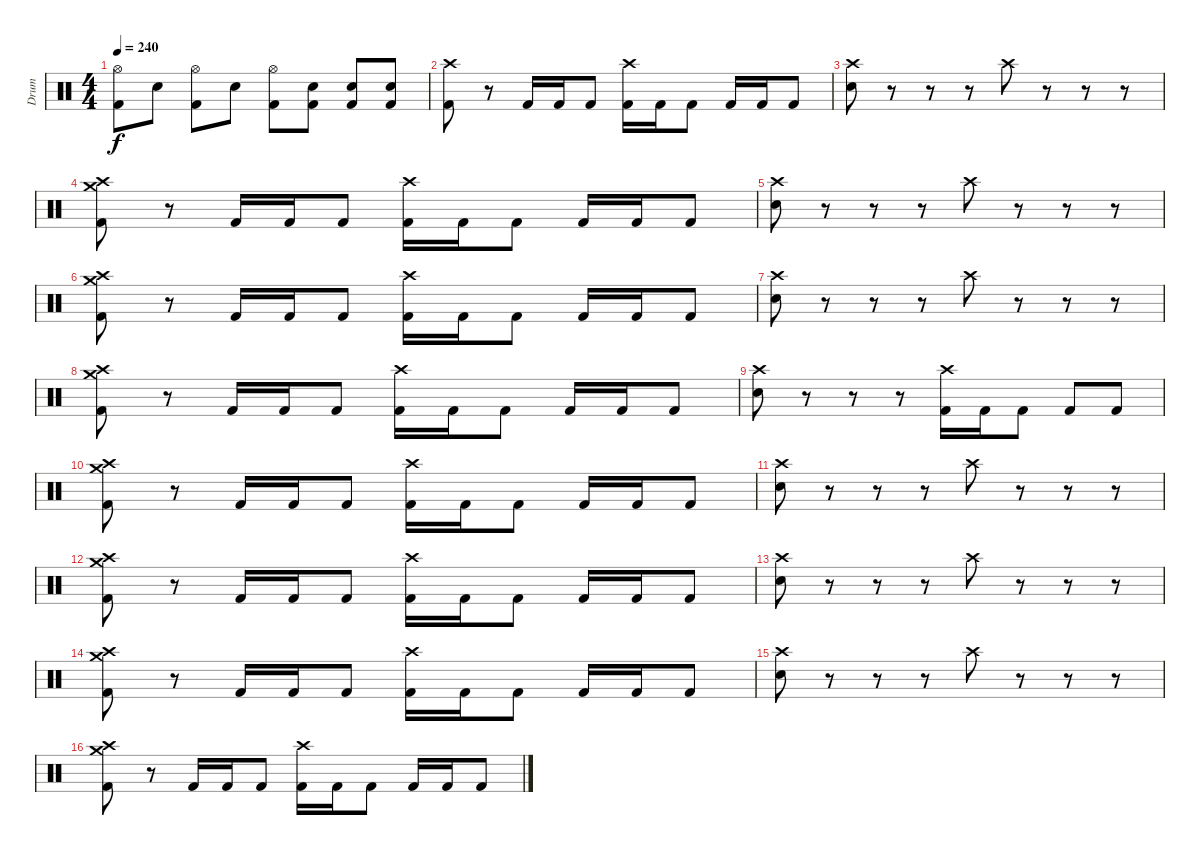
\track ("Drum" "Drum") {instrument percussion}
\staff {score}
\articulation defaults
\ts (4 4)
\tempo 240
\clef neutral
\ks c
("Hi-Hat (open)" "Kick (hit) 2").8{dy f} "Electric Snare (hit)".8 ("Hi-Hat (open)" "Kick (hit) 2").8 "Electric Snare (hit)".8 ("Hi-Hat (open)" "Kick (hit) 2").8 ("Electric Snare (hit)" "Kick (hit) 2").8 ("Electric Snare (hit)" "Kick (hit) 2").8 ("Electric Snare (hit)" "Kick (hit) 2").8 |
("Crash high (hit)" "Kick (hit) 2").8 r.8 "Kick (hit) 2".16 "Kick (hit) 2".16 "Kick (hit) 2".8 ("Crash high (hit)" "Kick (hit) 2").16 "Kick (hit) 2".16 "Kick (hit) 2".8 "Kick (hit) 2".16 "Kick (hit) 2".16 "Kick (hit) 2".8 |
("Crash high (hit)" "Electric Snare (hit)").8 r.8 r.8 r.8 "Crash high (hit)".8 r.8 r.8 r.8 |
("Crash medium (hit)" "Crash high (hit)" "Kick (hit) 2").8 r.8 "Kick (hit) 2".16 "Kick (hit) 2".16 "Kick (hit) 2".8 ("Crash high (hit)" "Kick (hit) 2").16 "Kick (hit) 2".16 "Kick (hit) 2".8 "Kick (hit) 2".16 "Kick (hit) 2".16 "Kick (hit) 2".8 |
("Crash high (hit)" "Electric Snare (hit)").8 r.8 r.8 r.8 "Crash high (hit)".8 r.8 r.8 r.8 |
("Crash medium (hit)" "Crash high (hit)" "Kick (hit) 2").8 r.8 "Kick (hit) 2".16 "Kick (hit) 2".16 "Kick (hit) 2".8 ("Crash high (hit)" "Kick (hit) 2").16 "Kick (hit) 2".16 "Kick (hit) 2".8 "Kick (hit) 2".16 "Kick (hit) 2".16 "Kick (hit) 2".8 |
("Crash high (hit)" "Electric Snare (hit)").8 r.8 r.8 r.8 "Crash high (hit)".8 r.8 r.8 r.8 |
("Crash medium (hit)" "Crash high (hit)" "Kick (hit) 2").8 r.8 "Kick (hit) 2".16 "Kick (hit) 2".16 "Kick (hit) 2".8 ("Crash high (hit)" "Kick (hit) 2").16 "Kick (hit) 2".16 "Kick (hit) 2".8 "Kick (hit) 2".16 "Kick (hit) 2".16 "Kick (hit) 2".8 |
("Crash high (hit)" "Electric Snare (hit)").8 r.8 r.8 r.8 ("Crash high (hit)" "Kick (hit) 2").16 "Kick (hit) 2".16 "Kick (hit) 2".8 "Kick (hit) 2".8 "Kick (hit) 2".8 |
("Crash medium (hit)" "Crash high (hit)" "Kick (hit) 2").8 r.8 "Kick (hit) 2".16 "Kick (hit) 2".16 "Kick (hit) 2".8 ("Crash high (hit)" "Kick (hit) 2").16 "Kick (hit) 2".16 "Kick (hit) 2".8 "Kick (hit) 2".16 "Kick (hit) 2".16 "Kick (hit) 2".8 |
("Crash high (hit)" "Electric Snare (hit)").8 r.8 r.8 r.8 "Crash high (hit)".8 r.8 r.8 r.8 |
("Crash medium (hit)" "Crash high (hit)" "Kick (hit) 2").8 r.8 "Kick (hit) 2".16 "Kick (hit) 2".16 "Kick (hit) 2".8 ("Crash high (hit)" "Kick (hit) 2").16 "Kick (hit) 2".16 "Kick (hit) 2".8 "Kick (hit) 2".16 "Kick (hit) 2".16 "Kick (hit) 2".8 |
("Crash high (hit)" "Electric Snare (hit)").8 r.8 r.8 r.8 "Crash high (hit)".8 r.8 r.8 r.8 |
("Crash medium (hit)" "Crash high (hit)" "Kick (hit) 2").8 r.8 "Kick (hit) 2".16 "Kick (hit) 2".16 "Kick (hit) 2".8 ("Crash high (hit)" "Kick (hit) 2").16 "Kick (hit) 2".16 "Kick (hit) 2".8 "Kick (hit) 2".16 "Kick (hit) 2".16 "Kick (hit) 2".8 |
("Crash high (hit)" "Electric Snare (hit)").8 r.8 r.8 r.8 "Crash high (hit)".8 r.8 r.8 r.8 |
("Crash medium (hit)" "Crash high (hit)" "Kick (hit) 2").8 r.8 "Kick (hit) 2".16 "Kick (hit) 2".16 "Kick (hit) 2".8 ("Crash high (hit)" "Kick (hit) 2").16 "Kick (hit) 2".16 "Kick (hit) 2".8 "Kick (hit) 2".16 "Kick (hit) 2".16 "Kick (hit) 2".8
